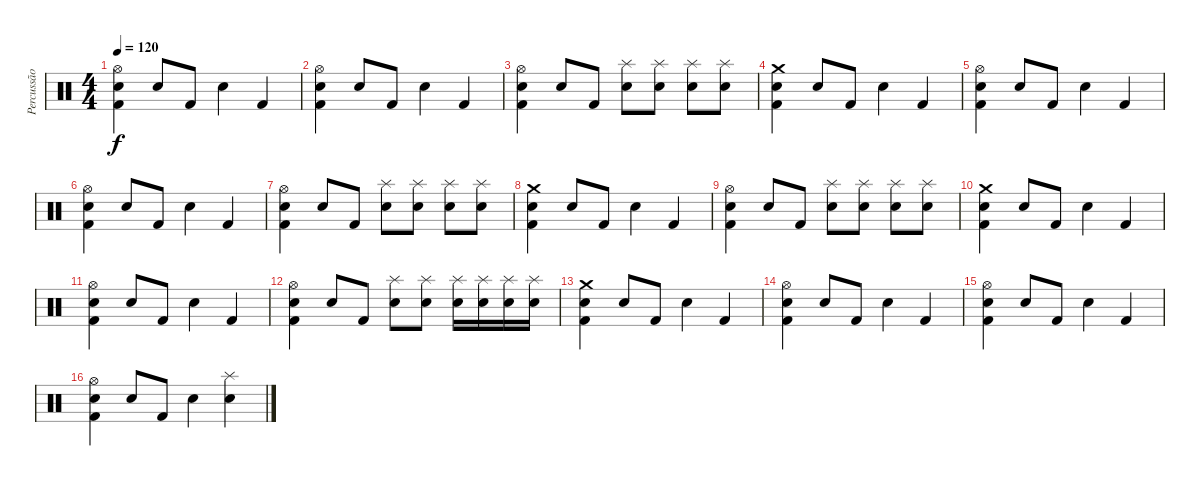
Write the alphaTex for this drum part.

\track ("Percussão" "Percussão") {instrument percussion}
\staff {score}
\articulation defaults
\ts (4 4)
\tempo 120
\clef neutral
\ks c
("Hi-Hat (open)" "Kick (hit) 2" "Snare (hit) 2").4{dy f} "Snare (hit) 2".8 "Kick (hit) 2".8 "Snare (hit) 2".4 "Kick (hit) 2".4 |
("Hi-Hat (open)" "Kick (hit) 2" "Snare (hit) 2").4 "Snare (hit) 2".8 "Kick (hit) 2".8 "Snare (hit) 2".4 "Kick (hit) 2".4 |
("Hi-Hat (open)" "Kick (hit) 2" "Snare (hit) 2").4 "Snare (hit) 2".8 "Kick (hit) 2".8 ("Splash (hit)" "Snare (hit) 2").8 ("Splash (hit)" "Snare (hit) 2").8 ("Splash (hit)" "Snare (hit) 2").8 ("Splash (hit)" "Snare (hit) 2").8 |
("Crash medium (hit)" "Kick (hit) 2" "Snare (hit) 2").4 "Snare (hit) 2".8 "Kick (hit) 2".8 "Snare (hit) 2".4 "Kick (hit) 2".4 |
("Hi-Hat (open)" "Kick (hit) 2" "Snare (hit) 2").4 "Snare (hit) 2".8 "Kick (hit) 2".8 "Snare (hit) 2".4 "Kick (hit) 2".4 |
("Hi-Hat (open)" "Kick (hit) 2" "Snare (hit) 2").4 "Snare (hit) 2".8 "Kick (hit) 2".8 "Snare (hit) 2".4 "Kick (hit) 2".4 |
("Hi-Hat (open)" "Kick (hit) 2" "Snare (hit) 2").4 "Snare (hit) 2".8 "Kick (hit) 2".8 ("Splash (hit)" "Snare (hit) 2").8 ("Splash (hit)" "Snare (hit) 2").8 ("Splash (hit)" "Snare (hit) 2").8 ("Splash (hit)" "Snare (hit) 2").8 |
("Crash medium (hit)" "Kick (hit) 2" "Snare (hit) 2").4 "Snare (hit) 2".8 "Kick (hit) 2".8 "Snare (hit) 2".4 "Kick (hit) 2".4 |
("Hi-Hat (open)" "Kick (hit) 2" "Snare (hit) 2").4 "Snare (hit) 2".8 "Kick (hit) 2".8 ("Splash (hit)" "Snare (hit) 2").8 ("Splash (hit)" "Snare (hit) 2").8 ("Splash (hit)" "Snare (hit) 2").8 ("Splash (hit)" "Snare (hit) 2").8 |
("Crash medium (hit)" "Kick (hit) 2" "Snare (hit) 2").4 "Snare (hit) 2".8 "Kick (hit) 2".8 "Snare (hit) 2".4 "Kick (hit) 2".4 |
("Hi-Hat (open)" "Kick (hit) 2" "Snare (hit) 2").4 "Snare (hit) 2".8 "Kick (hit) 2".8 "Snare (hit) 2".4 "Kick (hit) 2".4 |
("Hi-Hat (open)" "Kick (hit) 2" "Snare (hit) 2").4 "Snare (hit) 2".8 "Kick (hit) 2".8 ("Splash (hit)" "Snare (hit) 2").8 ("Splash (hit)" "Snare (hit) 2").8 ("Splash (hit)" "Snare (hit) 2").16 ("Splash (hit)" "Snare (hit) 2").16 ("Splash (hit)" "Snare (hit) 2").16 ("Splash (hit)" "Snare (hit) 2").16 |
("Crash medium (hit)" "Kick (hit) 2" "Snare (hit) 2").4 "Snare (hit) 2".8 "Kick (hit) 2".8 "Snare (hit) 2".4 "Kick (hit) 2".4 |
("Hi-Hat (open)" "Kick (hit) 2" "Snare (hit) 2").4 "Snare (hit) 2".8 "Kick (hit) 2".8 "Snare (hit) 2".4 "Kick (hit) 2".4 |
("Hi-Hat (open)" "Kick (hit) 2" "Snare (hit) 2").4 "Snare (hit) 2".8 "Kick (hit) 2".8 "Snare (hit) 2".4 "Kick (hit) 2".4 |
("Hi-Hat (open)" "Kick (hit) 2" "Snare (hit) 2").4 "Snare (hit) 2".8 "Kick (hit) 2".8 "Snare (hit) 2".4 ("Splash (hit)" "Snare (hit) 2").4
